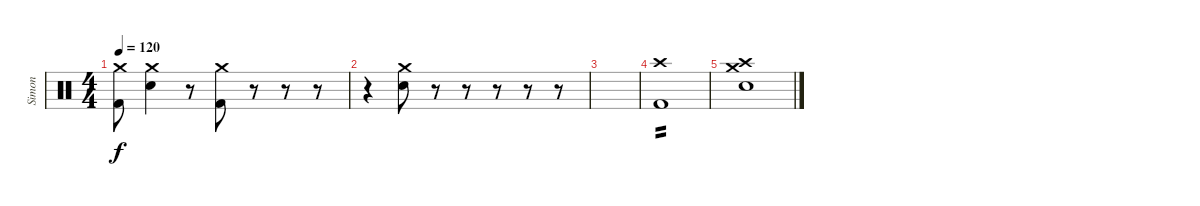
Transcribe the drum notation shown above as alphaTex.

\track ("Simon" "Simon") {instrument percussion}
\staff {score}
\articulation defaults
\ts (4 4)
\tempo 120
\clef neutral
\ks c
("Kick (hit) 2" "Crash medium (hit)").8{dy f} ("Snare (hit) 2" "Crash medium (hit)").4 r.8 ("Kick (hit) 2" "Crash medium (hit)").8 r.8 r.8 r.8 |
r.4 ("Snare (hit) 2" "Crash medium (hit)").8 r.8 r.8 r.8 r.8 r.8 |
|
("Kick (hit) 2" "Crash high (hit)").1{tp 2} |
("Snare (hit) 2" "Crash medium (hit)" "Crash high (hit)").1
